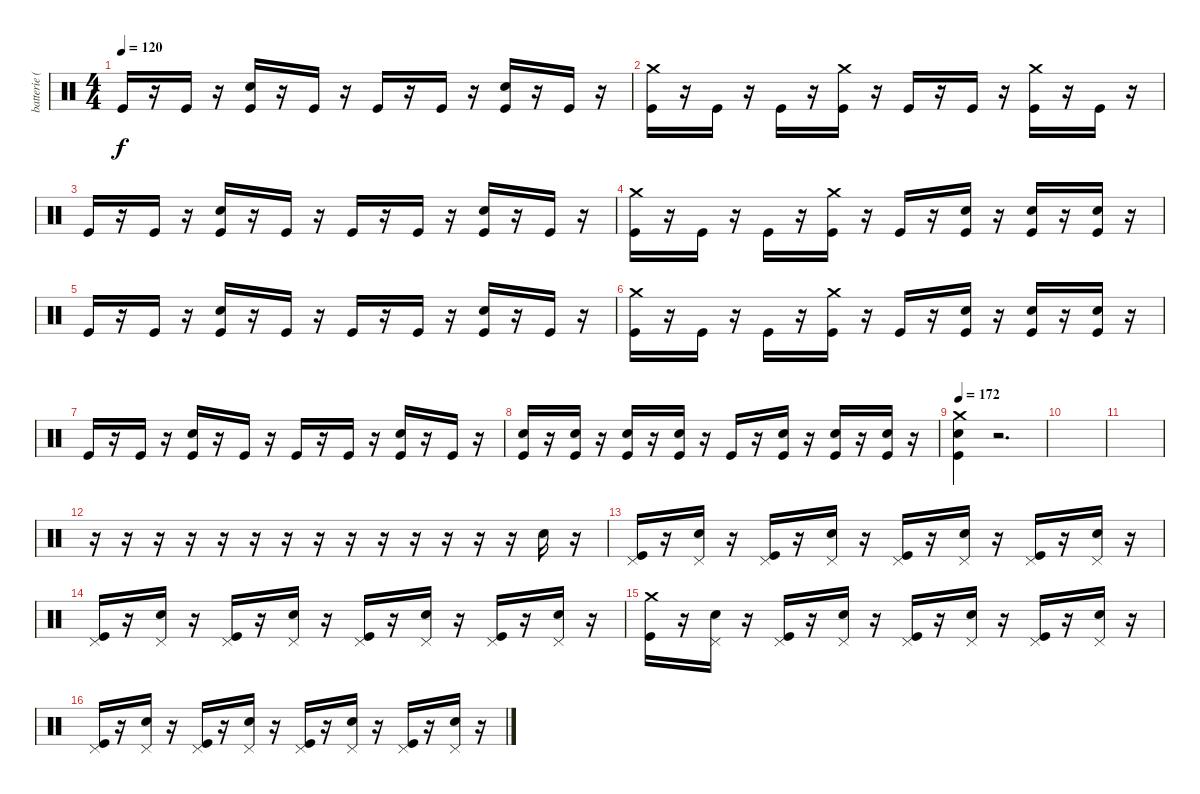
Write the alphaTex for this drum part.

\track ("batterie ( Louie Beatto ) " "batterie (") {instrument percussion}
\staff {score}
\articulation defaults
\ts (4 4)
\tempo 120
\clef neutral
\ks c "Kick (hit)".16{dy f}
r.16 "Kick (hit)".16 r.16 ("Snare (hit) 2" "Kick (hit)").16 r.16 "Kick (hit)".16 r.16 "Kick (hit)".16 r.16 "Kick (hit)".16 r.16 ("Snare (hit) 2" "Kick (hit)").16 r.16 "Kick (hit)".16 r.16 |
("Crash medium (hit)" "Kick (hit)").16 r.16 "Kick (hit)".16 r.16 "Kick (hit)".16 r.16 ("Crash medium (hit)" "Kick (hit)").16 r.16 "Kick (hit)".16 r.16 "Kick (hit)".16 r.16 ("Crash medium (hit)" "Kick (hit)").16 r.16 "Kick (hit)".16 r.16 |
"Kick (hit)".16 r.16 "Kick (hit)".16 r.16 ("Snare (hit) 2" "Kick (hit)").16 r.16 "Kick (hit)".16 r.16 "Kick (hit)".16 r.16 "Kick (hit)".16 r.16 ("Snare (hit) 2" "Kick (hit)").16 r.16 "Kick (hit)".16 r.16 |
("Crash medium (hit)" "Kick (hit)").16 r.16 "Kick (hit)".16 r.16 "Kick (hit)".16 r.16 ("Crash medium (hit)" "Kick (hit)").16 r.16 "Kick (hit)".16 r.16 ("Snare (hit) 2" "Kick (hit)").16 r.16 ("Snare (hit) 2" "Kick (hit)").16 r.16 ("Snare (hit) 2" "Kick (hit)").16 r.16 |
"Kick (hit)".16 r.16 "Kick (hit)".16 r.16 ("Snare (hit) 2" "Kick (hit)").16 r.16 "Kick (hit)".16 r.16 "Kick (hit)".16 r.16 "Kick (hit)".16 r.16 ("Snare (hit) 2" "Kick (hit)").16 r.16 "Kick (hit)".16 r.16 |
("Crash medium (hit)" "Kick (hit)").16 r.16 "Kick (hit)".16 r.16 "Kick (hit)".16 r.16 ("Crash medium (hit)" "Kick (hit)").16 r.16 "Kick (hit)".16 r.16 ("Snare (hit) 2" "Kick (hit)").16 r.16 ("Snare (hit) 2" "Kick (hit)").16 r.16 ("Snare (hit) 2" "Kick (hit)").16 r.16 |
"Kick (hit)".16 r.16 "Kick (hit)".16 r.16 ("Snare (hit) 2" "Kick (hit)").16 r.16 "Kick (hit)".16 r.16 "Kick (hit)".16 r.16 "Kick (hit)".16 r.16 ("Snare (hit) 2" "Kick (hit)").16 r.16 "Kick (hit)".16 r.16 |
("Snare (hit) 2" "Kick (hit)").16 r.16 ("Snare (hit) 2" "Kick (hit)").16 r.16 ("Snare (hit) 2" "Kick (hit)").16 r.16 ("Snare (hit) 2" "Kick (hit)").16 r.16 "Kick (hit)".16 r.16 ("Snare (hit) 2" "Kick (hit)").16 r.16 ("Snare (hit) 2" "Kick (hit)").16 r.16 ("Snare (hit) 2" "Kick (hit)").16 r.16 |
\tempo 172
("Crash medium (hit)" "Snare (hit) 2" "Kick (hit)").4 r.2{d} |
|
|
r.16 r.16 r.16 r.16 r.16 r.16 r.16 r.16 r.16 r.16 r.16 r.16 r.16 r.16 "Snare (hit) 2".16 r.16 |
("Pedal Hi-Hat (hit)" "Kick (hit)").16 r.16 ("Pedal Hi-Hat (hit)" "Snare (hit) 2").16 r.16 ("Pedal Hi-Hat (hit)" "Kick (hit)").16 r.16 ("Pedal Hi-Hat (hit)" "Snare (hit) 2").16 r.16 ("Pedal Hi-Hat (hit)" "Kick (hit)").16 r.16 ("Pedal Hi-Hat (hit)" "Snare (hit) 2").16 r.16 ("Pedal Hi-Hat (hit)" "Kick (hit)").16 r.16 ("Pedal Hi-Hat (hit)" "Snare (hit) 2").16 r.16 |
("Pedal Hi-Hat (hit)" "Kick (hit)").16 r.16 ("Pedal Hi-Hat (hit)" "Snare (hit) 2").16 r.16 ("Pedal Hi-Hat (hit)" "Kick (hit)").16 r.16 ("Pedal Hi-Hat (hit)" "Snare (hit) 2").16 r.16 ("Pedal Hi-Hat (hit)" "Kick (hit)").16 r.16 ("Pedal Hi-Hat (hit)" "Snare (hit) 2").16 r.16 ("Pedal Hi-Hat (hit)" "Kick (hit)").16 r.16 ("Pedal Hi-Hat (hit)" "Snare (hit) 2").16 r.16 |
("Crash medium (hit)" "Kick (hit)").16 r.16 ("Pedal Hi-Hat (hit)" "Snare (hit) 2").16 r.16 ("Pedal Hi-Hat (hit)" "Kick (hit)").16 r.16 ("Pedal Hi-Hat (hit)" "Snare (hit) 2").16 r.16 ("Pedal Hi-Hat (hit)" "Kick (hit)").16 r.16 ("Pedal Hi-Hat (hit)" "Snare (hit) 2").16 r.16 ("Pedal Hi-Hat (hit)" "Kick (hit)").16 r.16 ("Pedal Hi-Hat (hit)" "Snare (hit) 2").16 r.16 |
("Pedal Hi-Hat (hit)" "Kick (hit)").16 r.16 ("Pedal Hi-Hat (hit)" "Snare (hit) 2").16 r.16 ("Pedal Hi-Hat (hit)" "Kick (hit)").16 r.16 ("Pedal Hi-Hat (hit)" "Snare (hit) 2").16 r.16 ("Pedal Hi-Hat (hit)" "Kick (hit)").16 r.16 ("Pedal Hi-Hat (hit)" "Snare (hit) 2").16 r.16 ("Pedal Hi-Hat (hit)" "Kick (hit)").16 r.16 ("Pedal Hi-Hat (hit)" "Snare (hit) 2").16 r.16
